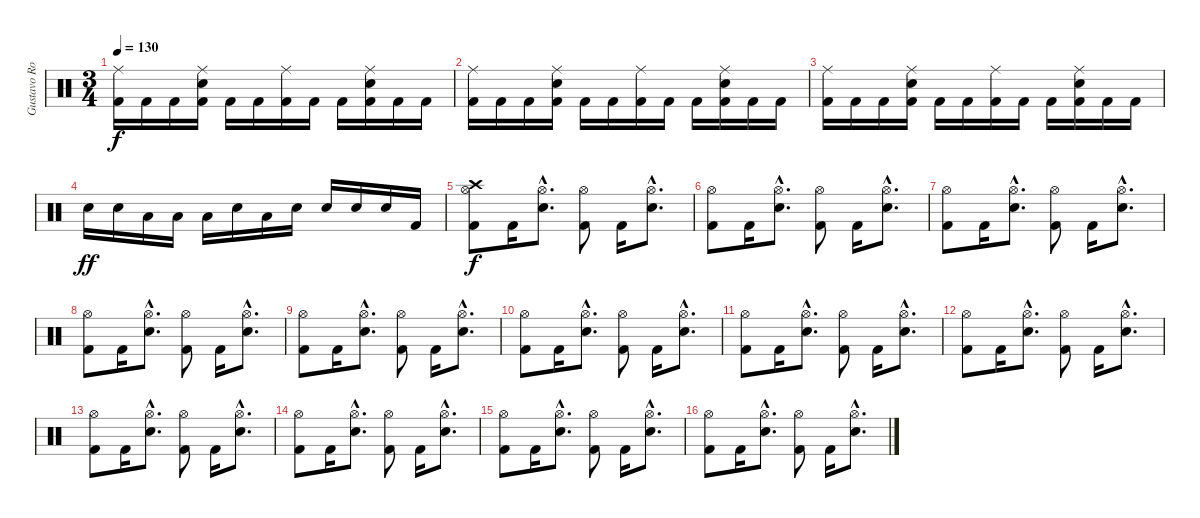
\track ("Gustavo Rowek" "Gustavo Ro") {instrument percussion}
\staff {score}
\articulation defaults
\ts (3 4)
\tempo 130
\clef neutral
\ks c
("Ride (middle)" "Kick (hit) 2").16{dy f} "Kick (hit) 2".16 "Kick (hit) 2".16 ("Ride (middle)" "Snare (hit) 2" "Kick (hit) 2").16 "Kick (hit) 2".16 "Kick (hit) 2".16 ("Ride (middle)" "Kick (hit) 2").16 "Kick (hit) 2".16 "Kick (hit) 2".16 ("Ride (middle)" "Snare (hit) 2" "Kick (hit) 2").16 "Kick (hit) 2".16 "Kick (hit) 2".16 |
("Ride (middle)" "Kick (hit) 2").16 "Kick (hit) 2".16 "Kick (hit) 2".16 ("Ride (middle)" "Snare (hit) 2" "Kick (hit) 2").16 "Kick (hit) 2".16 "Kick (hit) 2".16 ("Ride (middle)" "Kick (hit) 2").16 "Kick (hit) 2".16 "Kick (hit) 2".16 ("Ride (middle)" "Snare (hit) 2" "Kick (hit) 2").16 "Kick (hit) 2".16 "Kick (hit) 2".16 |
("Ride (middle)" "Kick (hit) 2").16 "Kick (hit) 2".16 "Kick (hit) 2".16 ("Ride (middle)" "Snare (hit) 2" "Kick (hit) 2").16 "Kick (hit) 2".16 "Kick (hit) 2".16 ("Ride (middle)" "Kick (hit) 2").16 "Kick (hit) 2".16 "Kick (hit) 2".16 ("Ride (middle)" "Snare (hit) 2" "Kick (hit) 2").16 "Kick (hit) 2".16 "Kick (hit) 2".16 |
"Snare (hit) 2".16{dy ff} "Electric Snare (hit)".16 "Low Floor Tom (hit)".16 "Low Floor Tom (hit)".16 "Low Floor Tom (hit)".16 "Electric Snare (hit)".16 "Low Floor Tom (hit)".16 "Electric Snare (hit)".16 "Snare (hit) 2".16 "Electric Snare (hit)".16 "Snare (hit) 2".16 "Kick (hit) 2".16 |
("Hi-Hat (open)" "Crash high (hit)" "Kick (hit) 2").8{dy f} "Kick (hit) 2".16 ("Hi-Hat (open)"{hac} "Snare (hit) 2"{hac}).8{d} ("Hi-Hat (open)" "Kick (hit) 2").8 "Kick (hit) 2".16 ("Hi-Hat (open)"{hac} "Snare (hit) 2"{hac}).8{d} |
("Hi-Hat (open)" "Kick (hit) 2").8 "Kick (hit) 2".16 ("Hi-Hat (open)"{hac} "Snare (hit) 2"{hac}).8{d} ("Hi-Hat (open)" "Kick (hit) 2").8 "Kick (hit) 2".16 ("Hi-Hat (open)"{hac} "Snare (hit) 2"{hac}).8{d} |
("Hi-Hat (open)" "Kick (hit) 2").8 "Kick (hit) 2".16 ("Hi-Hat (open)"{hac} "Snare (hit) 2"{hac}).8{d} ("Hi-Hat (open)" "Kick (hit) 2").8 "Kick (hit) 2".16 ("Hi-Hat (open)"{hac} "Snare (hit) 2"{hac}).8{d} |
("Hi-Hat (open)" "Kick (hit) 2").8 "Kick (hit) 2".16 ("Hi-Hat (open)"{hac} "Snare (hit) 2"{hac}).8{d} ("Hi-Hat (open)" "Kick (hit) 2").8 "Kick (hit) 2".16 ("Hi-Hat (open)"{hac} "Snare (hit) 2"{hac}).8{d} |
("Hi-Hat (open)" "Kick (hit) 2").8 "Kick (hit) 2".16 ("Hi-Hat (open)"{hac} "Snare (hit) 2"{hac}).8{d} ("Hi-Hat (open)" "Kick (hit) 2").8 "Kick (hit) 2".16 ("Hi-Hat (open)"{hac} "Snare (hit) 2"{hac}).8{d} |
("Hi-Hat (open)" "Kick (hit) 2").8 "Kick (hit) 2".16 ("Hi-Hat (open)"{hac} "Snare (hit) 2"{hac}).8{d} ("Hi-Hat (open)" "Kick (hit) 2").8 "Kick (hit) 2".16 ("Hi-Hat (open)"{hac} "Snare (hit) 2"{hac}).8{d} |
("Hi-Hat (open)" "Kick (hit) 2").8 "Kick (hit) 2".16 ("Hi-Hat (open)"{hac} "Snare (hit) 2"{hac}).8{d} ("Hi-Hat (open)" "Kick (hit) 2").8 "Kick (hit) 2".16 ("Hi-Hat (open)"{hac} "Snare (hit) 2"{hac}).8{d} |
("Hi-Hat (open)" "Kick (hit) 2").8 "Kick (hit) 2".16 ("Hi-Hat (open)"{hac} "Snare (hit) 2"{hac}).8{d} ("Hi-Hat (open)" "Kick (hit) 2").8 "Kick (hit) 2".16 ("Hi-Hat (open)"{hac} "Snare (hit) 2"{hac}).8{d} |
("Hi-Hat (open)" "Kick (hit) 2").8 "Kick (hit) 2".16 ("Hi-Hat (open)"{hac} "Snare (hit) 2"{hac}).8{d} ("Hi-Hat (open)" "Kick (hit) 2").8 "Kick (hit) 2".16 ("Hi-Hat (open)"{hac} "Snare (hit) 2"{hac}).8{d} |
("Hi-Hat (open)" "Kick (hit) 2").8 "Kick (hit) 2".16 ("Hi-Hat (open)"{hac} "Snare (hit) 2"{hac}).8{d} ("Hi-Hat (open)" "Kick (hit) 2").8 "Kick (hit) 2".16 ("Hi-Hat (open)"{hac} "Snare (hit) 2"{hac}).8{d} |
("Hi-Hat (open)" "Kick (hit) 2").8 "Kick (hit) 2".16 ("Hi-Hat (open)"{hac} "Snare (hit) 2"{hac}).8{d} ("Hi-Hat (open)" "Kick (hit) 2").8 "Kick (hit) 2".16 ("Hi-Hat (open)"{hac} "Snare (hit) 2"{hac}).8{d} |
("Hi-Hat (open)" "Kick (hit) 2").8 "Kick (hit) 2".16 ("Hi-Hat (open)"{hac} "Snare (hit) 2"{hac}).8{d} ("Hi-Hat (open)" "Kick (hit) 2").8 "Kick (hit) 2".16 ("Hi-Hat (open)"{hac} "Snare (hit) 2"{hac}).8{d}
